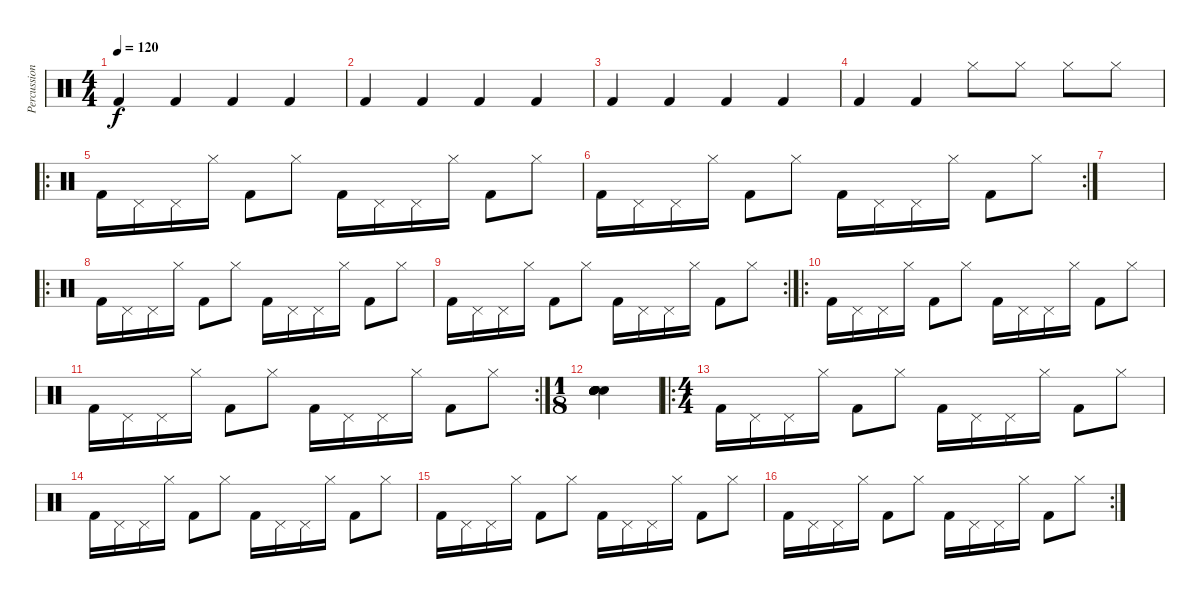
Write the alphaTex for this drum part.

\track ("Percussions" "Percussion") {instrument percussion}
\staff {score}
\articulation defaults
\ts (4 4)
\tempo 120
\clef neutral
\ks c "Kick (hit) 2".4{dy f} "Kick (hit) 2".4 "Kick (hit) 2".4 "Kick (hit) 2".4
|
"Kick (hit) 2".4 "Kick (hit) 2".4 "Kick (hit) 2".4 "Kick (hit) 2".4 |
"Kick (hit) 2".4 "Kick (hit) 2".4 "Kick (hit) 2".4 "Kick (hit) 2".4 |
"Kick (hit) 2".4 "Kick (hit) 2".4 "Hi-Hat (closed)".8 "Hi-Hat (closed)".8 "Hi-Hat (closed)".8 "Hi-Hat (closed)".8 |
\ro "Kick (hit) 2".16 "Pedal Hi-Hat (hit)".16 "Pedal Hi-Hat (hit)".16 "Hi-Hat (closed)".16 "Kick (hit) 2".8 "Hi-Hat (closed)".8 "Kick (hit) 2".16 "Pedal Hi-Hat (hit)".16 "Pedal Hi-Hat (hit)".16 "Hi-Hat (closed)".16 "Kick (hit) 2".8 "Hi-Hat (closed)".8
|
\rc 2 "Kick (hit) 2".16 "Pedal Hi-Hat (hit)".16 "Pedal Hi-Hat (hit)".16 "Hi-Hat (closed)".16 "Kick (hit) 2".8 "Hi-Hat (closed)".8 "Kick (hit) 2".16 "Pedal Hi-Hat (hit)".16 "Pedal Hi-Hat (hit)".16 "Hi-Hat (closed)".16 "Kick (hit) 2".8 "Hi-Hat (closed)".8
|
|
\ro "Kick (hit) 2".16 "Pedal Hi-Hat (hit)".16 "Pedal Hi-Hat (hit)".16 "Hi-Hat (closed)".16 "Kick (hit) 2".8 "Hi-Hat (closed)".8 "Kick (hit) 2".16 "Pedal Hi-Hat (hit)".16 "Pedal Hi-Hat (hit)".16 "Hi-Hat (closed)".16 "Kick (hit) 2".8 "Hi-Hat (closed)".8
|
\rc 2 "Kick (hit) 2".16 "Pedal Hi-Hat (hit)".16 "Pedal Hi-Hat (hit)".16 "Hi-Hat (closed)".16 "Kick (hit) 2".8 "Hi-Hat (closed)".8 "Kick (hit) 2".16 "Pedal Hi-Hat (hit)".16 "Pedal Hi-Hat (hit)".16 "Hi-Hat (closed)".16 "Kick (hit) 2".8 "Hi-Hat (closed)".8
|
\ro "Kick (hit) 2".16 "Pedal Hi-Hat (hit)".16 "Pedal Hi-Hat (hit)".16 "Hi-Hat (closed)".16 "Kick (hit) 2".8 "Hi-Hat (closed)".8 "Kick (hit) 2".16 "Pedal Hi-Hat (hit)".16 "Pedal Hi-Hat (hit)".16 "Hi-Hat (closed)".16 "Kick (hit) 2".8 "Hi-Hat (closed)".8
|
\rc 2 "Kick (hit) 2".16 "Pedal Hi-Hat (hit)".16 "Pedal Hi-Hat (hit)".16 "Hi-Hat (closed)".16 "Kick (hit) 2".8 "Hi-Hat (closed)".8 "Kick (hit) 2".16 "Pedal Hi-Hat (hit)".16 "Pedal Hi-Hat (hit)".16 "Hi-Hat (closed)".16 "Kick (hit) 2".8 "Hi-Hat (closed)".8
|
\ts (1 8)
("Electric Snare (hit)" "Electric Snare (hit)" "Electric Snare (hit)" "Electric Snare (hit)" "Electric Snare (hit)" "Electric Snare (hit)").4 |
\ro
\ts (4 4)
"Kick (hit) 2".16 "Pedal Hi-Hat (hit)".16 "Pedal Hi-Hat (hit)".16 "Hi-Hat (closed)".16 "Kick (hit) 2".8 "Hi-Hat (closed)".8 "Kick (hit) 2".16 "Pedal Hi-Hat (hit)".16 "Pedal Hi-Hat (hit)".16 "Hi-Hat (closed)".16 "Kick (hit) 2".8 "Hi-Hat (closed)".8 |
"Kick (hit) 2".16 "Pedal Hi-Hat (hit)".16 "Pedal Hi-Hat (hit)".16 "Hi-Hat (closed)".16 "Kick (hit) 2".8 "Hi-Hat (closed)".8 "Kick (hit) 2".16 "Pedal Hi-Hat (hit)".16 "Pedal Hi-Hat (hit)".16 "Hi-Hat (closed)".16 "Kick (hit) 2".8 "Hi-Hat (closed)".8 |
"Kick (hit) 2".16 "Pedal Hi-Hat (hit)".16 "Pedal Hi-Hat (hit)".16 "Hi-Hat (closed)".16 "Kick (hit) 2".8 "Hi-Hat (closed)".8 "Kick (hit) 2".16 "Pedal Hi-Hat (hit)".16 "Pedal Hi-Hat (hit)".16 "Hi-Hat (closed)".16 "Kick (hit) 2".8 "Hi-Hat (closed)".8 |
\rc 2 "Kick (hit) 2".16 "Pedal Hi-Hat (hit)".16 "Pedal Hi-Hat (hit)".16 "Hi-Hat (closed)".16 "Kick (hit) 2".8 "Hi-Hat (closed)".8 "Kick (hit) 2".16 "Pedal Hi-Hat (hit)".16 "Pedal Hi-Hat (hit)".16 "Hi-Hat (closed)".16 "Kick (hit) 2".8 "Hi-Hat (closed)".8
